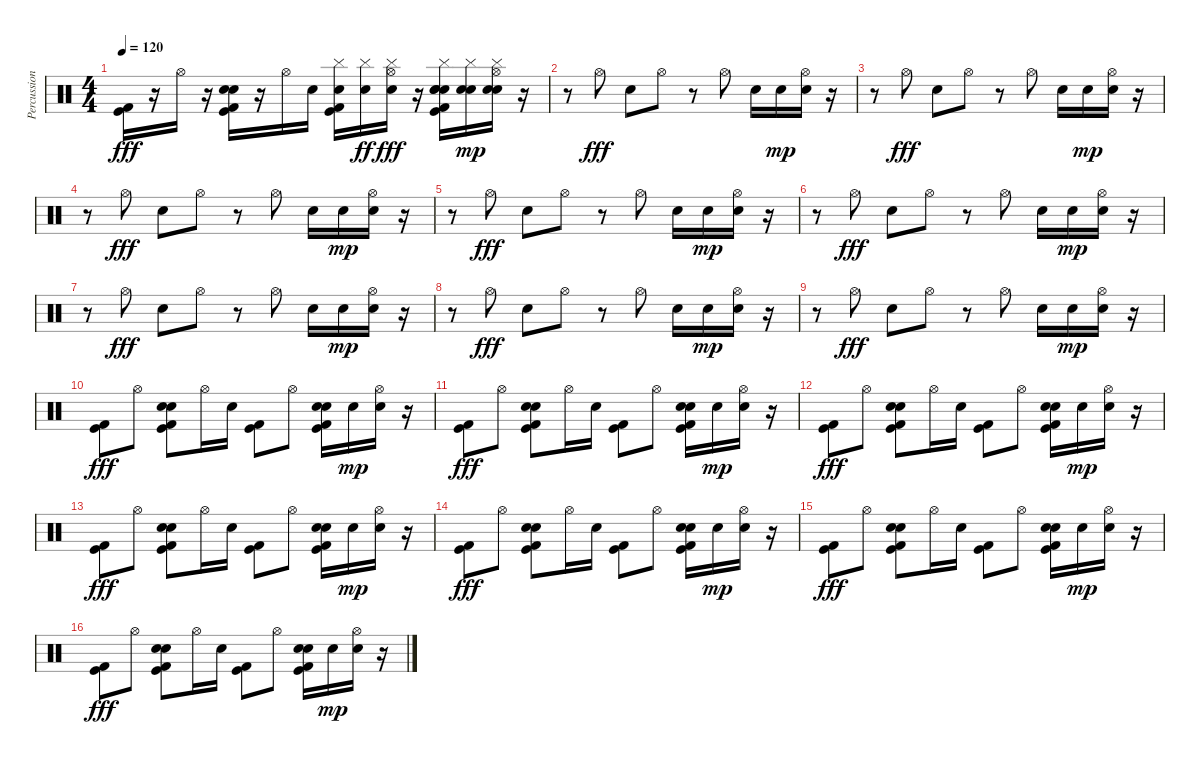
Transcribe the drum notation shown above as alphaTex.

\track ("Percussion" "Percussion") {instrument percussion}
\staff {score}
\articulation defaults
\ts (4 4)
\tempo 120
\clef neutral
\ks c
("Kick (hit) 2" "Kick (hit)").16{dy fff} r.16 "Hi-Hat (open)".16 r.16 ("Kick (hit) 2" "Kick (hit)" "Hand Clap (hit)" "Electric Snare (hit)").16 r.16 "Hi-Hat (open)".16 "Electric Snare (hit)".16 ("Snare (hit)" "Cymbal (hit)" "Kick (hit)" "Kick (hit) 2").16 ("Snare (hit)" "Cymbal (hit)").16{dy ff} ("Snare (hit)" "Cymbal (hit)" "Hi-Hat (open)").16{dy fff} r.16 ("Snare (hit)" "Cymbal (hit)" "Kick (hit)" "Kick (hit) 2" "Electric Snare (hit)" "Hand Clap (hit)").16 ("Snare (hit)" "Cymbal (hit)" "Electric Snare (hit)").16{dy mp} ("Snare (hit)" "Cymbal (hit)" "Hi-Hat (open)" "Electric Snare (hit)").16 r.16 |
r.8 "Hi-Hat (open)".8{dy fff} "Hand Clap (hit)".8 "Hi-Hat (open)".8 r.8 "Hi-Hat (open)".8 "Hand Clap (hit)".16 "Hand Clap (hit)".16{dy mp} ("Hi-Hat (open)" "Hand Clap (hit)").16 r.16 |
r.8 "Hi-Hat (open)".8{dy fff} "Hand Clap (hit)".8 "Hi-Hat (open)".8 r.8 "Hi-Hat (open)".8 "Hand Clap (hit)".16 "Hand Clap (hit)".16{dy mp} ("Hi-Hat (open)" "Hand Clap (hit)").16 r.16 |
r.8 "Hi-Hat (open)".8{dy fff} "Hand Clap (hit)".8 "Hi-Hat (open)".8 r.8 "Hi-Hat (open)".8 "Hand Clap (hit)".16 "Hand Clap (hit)".16{dy mp} ("Hi-Hat (open)" "Hand Clap (hit)").16 r.16 |
r.8 "Hi-Hat (open)".8{dy fff} "Hand Clap (hit)".8 "Hi-Hat (open)".8 r.8 "Hi-Hat (open)".8 "Hand Clap (hit)".16 "Hand Clap (hit)".16{dy mp} ("Hi-Hat (open)" "Hand Clap (hit)").16 r.16 |
r.8 "Hi-Hat (open)".8{dy fff} "Hand Clap (hit)".8 "Hi-Hat (open)".8 r.8 "Hi-Hat (open)".8 "Hand Clap (hit)".16 "Hand Clap (hit)".16{dy mp} ("Hi-Hat (open)" "Hand Clap (hit)").16 r.16 |
r.8 "Hi-Hat (open)".8{dy fff} "Hand Clap (hit)".8 "Hi-Hat (open)".8 r.8 "Hi-Hat (open)".8 "Hand Clap (hit)".16 "Hand Clap (hit)".16{dy mp} ("Hi-Hat (open)" "Hand Clap (hit)").16 r.16 |
r.8 "Hi-Hat (open)".8{dy fff} "Hand Clap (hit)".8 "Hi-Hat (open)".8 r.8 "Hi-Hat (open)".8 "Hand Clap (hit)".16 "Hand Clap (hit)".16{dy mp} ("Hi-Hat (open)" "Hand Clap (hit)").16 r.16 |
r.8 "Hi-Hat (open)".8{dy fff} "Hand Clap (hit)".8 "Hi-Hat (open)".8 r.8 "Hi-Hat (open)".8 "Hand Clap (hit)".16 "Hand Clap (hit)".16{dy mp} ("Hi-Hat (open)" "Hand Clap (hit)").16 r.16 |
("Kick (hit) 2" "Kick (hit)").8{dy fff} "Hi-Hat (open)".8 ("Kick (hit) 2" "Kick (hit)" "Hand Clap (hit)" "Electric Snare (hit)").8 "Hi-Hat (open)".16 "Electric Snare (hit)".16 ("Kick (hit) 2" "Kick (hit)").8 "Hi-Hat (open)".8 ("Kick (hit) 2" "Kick (hit)" "Hand Clap (hit)" "Electric Snare (hit)").16 "Electric Snare (hit)".16{dy mp} ("Hi-Hat (open)" "Electric Snare (hit)").16 r.16 |
("Kick (hit) 2" "Kick (hit)").8{dy fff} "Hi-Hat (open)".8 ("Kick (hit) 2" "Kick (hit)" "Hand Clap (hit)" "Electric Snare (hit)").8 "Hi-Hat (open)".16 "Electric Snare (hit)".16 ("Kick (hit) 2" "Kick (hit)").8 "Hi-Hat (open)".8 ("Kick (hit) 2" "Kick (hit)" "Hand Clap (hit)" "Electric Snare (hit)").16 "Electric Snare (hit)".16{dy mp} ("Hi-Hat (open)" "Electric Snare (hit)").16 r.16 |
("Kick (hit) 2" "Kick (hit)").8{dy fff} "Hi-Hat (open)".8 ("Kick (hit) 2" "Kick (hit)" "Hand Clap (hit)" "Electric Snare (hit)").8 "Hi-Hat (open)".16 "Electric Snare (hit)".16 ("Kick (hit) 2" "Kick (hit)").8 "Hi-Hat (open)".8 ("Kick (hit) 2" "Kick (hit)" "Hand Clap (hit)" "Electric Snare (hit)").16 "Electric Snare (hit)".16{dy mp} ("Hi-Hat (open)" "Electric Snare (hit)").16 r.16 |
("Kick (hit) 2" "Kick (hit)").8{dy fff} "Hi-Hat (open)".8 ("Kick (hit) 2" "Kick (hit)" "Hand Clap (hit)" "Electric Snare (hit)").8 "Hi-Hat (open)".16 "Electric Snare (hit)".16 ("Kick (hit) 2" "Kick (hit)").8 "Hi-Hat (open)".8 ("Kick (hit) 2" "Kick (hit)" "Hand Clap (hit)" "Electric Snare (hit)").16 "Electric Snare (hit)".16{dy mp} ("Hi-Hat (open)" "Electric Snare (hit)").16 r.16 |
("Kick (hit) 2" "Kick (hit)").8{dy fff} "Hi-Hat (open)".8 ("Kick (hit) 2" "Kick (hit)" "Hand Clap (hit)" "Electric Snare (hit)").8 "Hi-Hat (open)".16 "Electric Snare (hit)".16 ("Kick (hit) 2" "Kick (hit)").8 "Hi-Hat (open)".8 ("Kick (hit) 2" "Kick (hit)" "Hand Clap (hit)" "Electric Snare (hit)").16 "Electric Snare (hit)".16{dy mp} ("Hi-Hat (open)" "Electric Snare (hit)").16 r.16 |
("Kick (hit) 2" "Kick (hit)").8{dy fff} "Hi-Hat (open)".8 ("Kick (hit) 2" "Kick (hit)" "Hand Clap (hit)" "Electric Snare (hit)").8 "Hi-Hat (open)".16 "Electric Snare (hit)".16 ("Kick (hit) 2" "Kick (hit)").8 "Hi-Hat (open)".8 ("Kick (hit) 2" "Kick (hit)" "Hand Clap (hit)" "Electric Snare (hit)").16 "Electric Snare (hit)".16{dy mp} ("Hi-Hat (open)" "Electric Snare (hit)").16 r.16 |
("Kick (hit) 2" "Kick (hit)").8{dy fff} "Hi-Hat (open)".8 ("Kick (hit) 2" "Kick (hit)" "Hand Clap (hit)" "Electric Snare (hit)").8 "Hi-Hat (open)".16 "Electric Snare (hit)".16 ("Kick (hit) 2" "Kick (hit)").8 "Hi-Hat (open)".8 ("Kick (hit) 2" "Kick (hit)" "Hand Clap (hit)" "Electric Snare (hit)").16 "Electric Snare (hit)".16{dy mp} ("Hi-Hat (open)" "Electric Snare (hit)").16 r.16
